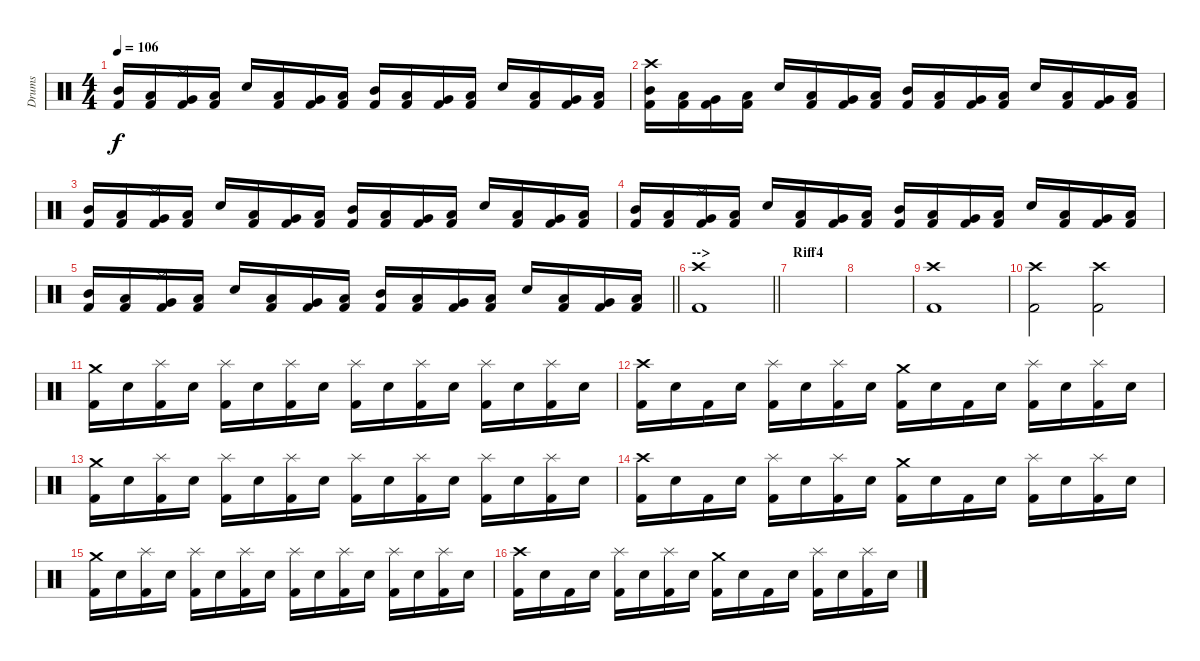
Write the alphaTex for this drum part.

\track ("Drums" "Drums") {instrument percussion}
\staff {score}
\articulation defaults
\ts (4 4)
\tempo 106
\clef neutral
\ks c
("Mid Tom (hit)" "Kick (hit) 2").16{dy f} ("Low Tom (hit)" "Kick (hit) 2").16 ("Ride (middle)" "Very Low Tom (hit)" "Kick (hit) 2").16 ("Low Floor Tom (hit)" "Kick (hit) 2").16 "Snare (hit) 2".16 ("Low Floor Tom (hit)" "Kick (hit) 2").16 ("Very Low Tom (hit)" "Kick (hit) 2").16 ("Low Tom (hit)" "Kick (hit) 2").16 ("Mid Tom (hit)" "Kick (hit) 2").16 ("Low Tom (hit)" "Kick (hit) 2").16 ("Very Low Tom (hit)" "Kick (hit) 2").16 ("Low Floor Tom (hit)" "Kick (hit) 2").16 "Snare (hit) 2".16 ("Low Floor Tom (hit)" "Kick (hit) 2").16 ("Very Low Tom (hit)" "Kick (hit) 2").16 ("Low Tom (hit)" "Kick (hit) 2").16 |
("Crash high (hit)" "Mid Tom (hit)" "Kick (hit) 2").16 ("Low Tom (hit)" "Kick (hit) 2").16 ("Very Low Tom (hit)" "Kick (hit) 2").16 ("Low Floor Tom (hit)" "Kick (hit) 2").16 "Snare (hit) 2".16 ("Low Floor Tom (hit)" "Kick (hit) 2").16 ("Very Low Tom (hit)" "Kick (hit) 2").16 ("Low Tom (hit)" "Kick (hit) 2").16 ("Mid Tom (hit)" "Kick (hit) 2").16 ("Low Tom (hit)" "Kick (hit) 2").16 ("Very Low Tom (hit)" "Kick (hit) 2").16 ("Low Floor Tom (hit)" "Kick (hit) 2").16 "Snare (hit) 2".16 ("Low Floor Tom (hit)" "Kick (hit) 2").16 ("Very Low Tom (hit)" "Kick (hit) 2").16 ("Low Tom (hit)" "Kick (hit) 2").16 |
("Mid Tom (hit)" "Kick (hit) 2").16 ("Low Tom (hit)" "Kick (hit) 2").16 ("Ride (middle)" "Very Low Tom (hit)" "Kick (hit) 2").16 ("Low Floor Tom (hit)" "Kick (hit) 2").16 "Snare (hit) 2".16 ("Low Floor Tom (hit)" "Kick (hit) 2").16 ("Very Low Tom (hit)" "Kick (hit) 2").16 ("Low Tom (hit)" "Kick (hit) 2").16 ("Mid Tom (hit)" "Kick (hit) 2").16 ("Low Tom (hit)" "Kick (hit) 2").16 ("Very Low Tom (hit)" "Kick (hit) 2").16 ("Low Floor Tom (hit)" "Kick (hit) 2").16 "Snare (hit) 2".16 ("Low Floor Tom (hit)" "Kick (hit) 2").16 ("Very Low Tom (hit)" "Kick (hit) 2").16 ("Low Tom (hit)" "Kick (hit) 2").16 |
("Mid Tom (hit)" "Kick (hit) 2").16 ("Low Tom (hit)" "Kick (hit) 2").16 ("Ride (middle)" "Very Low Tom (hit)" "Kick (hit) 2").16 ("Low Floor Tom (hit)" "Kick (hit) 2").16 "Snare (hit) 2".16 ("Low Floor Tom (hit)" "Kick (hit) 2").16 ("Very Low Tom (hit)" "Kick (hit) 2").16 ("Low Tom (hit)" "Kick (hit) 2").16 ("Mid Tom (hit)" "Kick (hit) 2").16 ("Low Tom (hit)" "Kick (hit) 2").16 ("Very Low Tom (hit)" "Kick (hit) 2").16 ("Low Floor Tom (hit)" "Kick (hit) 2").16 "Snare (hit) 2".16 ("Low Floor Tom (hit)" "Kick (hit) 2").16 ("Very Low Tom (hit)" "Kick (hit) 2").16 ("Low Tom (hit)" "Kick (hit) 2").16 |
\barLineRight lightlight
("Mid Tom (hit)" "Kick (hit) 2").16 ("Low Tom (hit)" "Kick (hit) 2").16 ("Ride (middle)" "Very Low Tom (hit)" "Kick (hit) 2").16 ("Low Floor Tom (hit)" "Kick (hit) 2").16 "Snare (hit) 2".16 ("Low Floor Tom (hit)" "Kick (hit) 2").16 ("Very Low Tom (hit)" "Kick (hit) 2").16 ("Low Tom (hit)" "Kick (hit) 2").16 ("Mid Tom (hit)" "Kick (hit) 2").16 ("Low Tom (hit)" "Kick (hit) 2").16 ("Very Low Tom (hit)" "Kick (hit) 2").16 ("Low Floor Tom (hit)" "Kick (hit) 2").16 "Snare (hit) 2".16 ("Low Floor Tom (hit)" "Kick (hit) 2").16 ("Very Low Tom (hit)" "Kick (hit) 2").16 ("Low Tom (hit)" "Kick (hit) 2").16 |
\section ("" "-->")
\barLineRight lightlight
("Crash high (hit)" "Kick (hit) 2").1 |
\section ("" "Riff4")
|
|
("Crash high (hit)" "Kick (hit) 2").1 |
("Crash high (hit)" "Kick (hit) 2").2 ("Crash high (hit)" "Kick (hit) 2").2 |
("Crash medium (hit)" "Kick (hit) 2").16 "Snare (hit) 2".16 ("Splash (hit)" "Kick (hit) 2").16 "Snare (hit) 2".16 ("Splash (hit)" "Kick (hit) 2").16 "Snare (hit) 2".16 ("Splash (hit)" "Kick (hit) 2").16 "Snare (hit) 2".16 ("Splash (hit)" "Kick (hit) 2").16 "Snare (hit) 2".16 ("Splash (hit)" "Kick (hit) 2").16 "Snare (hit) 2".16 ("Splash (hit)" "Kick (hit) 2").16 "Snare (hit) 2".16 ("Splash (hit)" "Kick (hit) 2").16 "Snare (hit) 2".16 |
("Crash high (hit)" "Kick (hit) 2").16 "Snare (hit) 2".16 "Kick (hit) 2".16 "Snare (hit) 2".16 ("Splash (hit)" "Kick (hit) 2").16 "Snare (hit) 2".16 ("Splash (hit)" "Kick (hit) 2").16 "Snare (hit) 2".16 ("Crash medium (hit)" "Kick (hit) 2").16 "Snare (hit) 2".16 "Kick (hit) 2".16 "Snare (hit) 2".16 ("Splash (hit)" "Kick (hit) 2").16 "Snare (hit) 2".16 ("Splash (hit)" "Kick (hit) 2").16 "Snare (hit) 2".16 |
("Crash medium (hit)" "Kick (hit) 2").16 "Snare (hit) 2".16 ("Splash (hit)" "Kick (hit) 2").16 "Snare (hit) 2".16 ("Splash (hit)" "Kick (hit) 2").16 "Snare (hit) 2".16 ("Splash (hit)" "Kick (hit) 2").16 "Snare (hit) 2".16 ("Splash (hit)" "Kick (hit) 2").16 "Snare (hit) 2".16 ("Splash (hit)" "Kick (hit) 2").16 "Snare (hit) 2".16 ("Splash (hit)" "Kick (hit) 2").16 "Snare (hit) 2".16 ("Splash (hit)" "Kick (hit) 2").16 "Snare (hit) 2".16 |
("Crash high (hit)" "Kick (hit) 2").16 "Snare (hit) 2".16 "Kick (hit) 2".16 "Snare (hit) 2".16 ("Splash (hit)" "Kick (hit) 2").16 "Snare (hit) 2".16 ("Splash (hit)" "Kick (hit) 2").16 "Snare (hit) 2".16 ("Crash medium (hit)" "Kick (hit) 2").16 "Snare (hit) 2".16 "Kick (hit) 2".16 "Snare (hit) 2".16 ("Splash (hit)" "Kick (hit) 2").16 "Snare (hit) 2".16 ("Splash (hit)" "Kick (hit) 2").16 "Snare (hit) 2".16 |
("Crash medium (hit)" "Kick (hit) 2").16 "Snare (hit) 2".16 ("Splash (hit)" "Kick (hit) 2").16 "Snare (hit) 2".16 ("Splash (hit)" "Kick (hit) 2").16 "Snare (hit) 2".16 ("Splash (hit)" "Kick (hit) 2").16 "Snare (hit) 2".16 ("Splash (hit)" "Kick (hit) 2").16 "Snare (hit) 2".16 ("Splash (hit)" "Kick (hit) 2").16 "Snare (hit) 2".16 ("Splash (hit)" "Kick (hit) 2").16 "Snare (hit) 2".16 ("Splash (hit)" "Kick (hit) 2").16 "Snare (hit) 2".16 |
("Crash high (hit)" "Kick (hit) 2").16 "Snare (hit) 2".16 "Kick (hit) 2".16 "Snare (hit) 2".16 ("Splash (hit)" "Kick (hit) 2").16 "Snare (hit) 2".16 ("Splash (hit)" "Kick (hit) 2").16 "Snare (hit) 2".16 ("Crash medium (hit)" "Kick (hit) 2").16 "Snare (hit) 2".16 "Kick (hit) 2".16 "Snare (hit) 2".16 ("Splash (hit)" "Kick (hit) 2").16 "Snare (hit) 2".16 ("Splash (hit)" "Kick (hit) 2").16 "Snare (hit) 2".16
